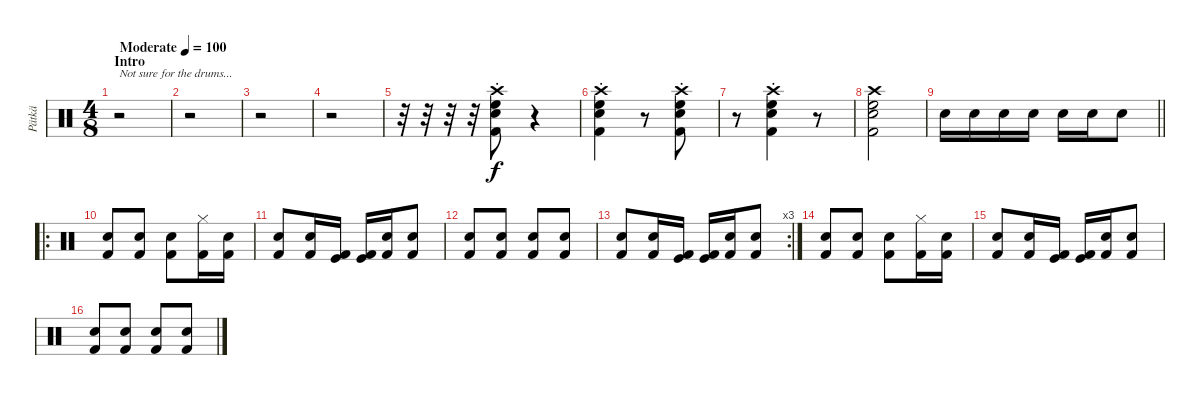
\track ("Pätkä" "Pätkä") {instrument percussion}
\staff {score}
\articulation defaults
\ts (4 8)
\section ("" "Intro")
\tempo (100 "Moderate")
\clef neutral
\ks c
r.2{txt "Not sure for the drums..." dy f} |
r.2 |
r.2 |
r.2 |
r.32 r.32 r.32 r.32 ("Crash high (hit)"{st} "High Floor Tom (hit)"{st} "Electric Snare (hit)"{st} "Kick (hit) 2"{st}).8 r.4 |
("Crash high (hit)"{st} "High Floor Tom (hit)"{st} "Electric Snare (hit)"{st} "Kick (hit) 2"{st}).4 r.8 ("Crash high (hit)"{st} "High Floor Tom (hit)"{st} "Electric Snare (hit)"{st} "Kick (hit) 2"{st}).8 |
r.8 ("Crash high (hit)"{st} "High Floor Tom (hit)"{st} "Snare (hit) 2"{st} "Kick (hit) 2"{st}).4 r.8 |
("Crash high (hit)" "High Floor Tom (hit)" "Snare (hit) 2" "Kick (hit) 2").2 |
\barLineRight lightlight "Electric Snare (hit)".16 "Snare (hit) 2".16 "Snare (hit) 2".16 "Electric Snare (hit)".16 "Snare (hit) 2".16 "Snare (hit) 2".16 "Electric Snare (hit)".8
|
\ro
("Electric Snare (hit)" "Kick (hit) 2").8 ("Snare (hit) 2" "Kick (hit) 2").8 ("Electric Snare (hit)" "Kick (hit) 2").8 ("Hi-Hat (closed)" "Kick (hit) 2").16 ("Snare (hit) 2" "Kick (hit) 2").16 |
("Snare (hit) 2" "Kick (hit) 2").8 ("Snare (hit) 2" "Kick (hit) 2").16 ("Kick (hit)" "Kick (hit) 2").16 ("Kick (hit)" "Kick (hit) 2").16 ("Snare (hit) 2" "Kick (hit) 2").16 ("Electric Snare (hit)" "Kick (hit) 2").8 |
("Electric Snare (hit)" "Kick (hit) 2").8 ("Snare (hit) 2" "Kick (hit) 2").8 ("Electric Snare (hit)" "Kick (hit) 2").8 ("Snare (hit) 2" "Kick (hit) 2").8 |
\rc 3
("Electric Snare (hit)" "Kick (hit) 2").8 ("Snare (hit) 2" "Kick (hit) 2").16 ("Kick (hit)" "Kick (hit) 2").16 ("Kick (hit)" "Kick (hit) 2").16 ("Snare (hit) 2" "Kick (hit) 2").16 ("Electric Snare (hit)" "Kick (hit) 2").8 |
("Electric Snare (hit)" "Kick (hit) 2").8 ("Snare (hit) 2" "Kick (hit) 2").8 ("Electric Snare (hit)" "Kick (hit) 2").8 ("Hi-Hat (closed)" "Kick (hit) 2").16 ("Snare (hit) 2" "Kick (hit) 2").16 |
("Snare (hit) 2" "Kick (hit) 2").8 ("Snare (hit) 2" "Kick (hit) 2").16 ("Kick (hit)" "Kick (hit) 2").16 ("Kick (hit)" "Kick (hit) 2").16 ("Snare (hit) 2" "Kick (hit) 2").16 ("Electric Snare (hit)" "Kick (hit) 2").8 |
("Electric Snare (hit)" "Kick (hit) 2").8 ("Snare (hit) 2" "Kick (hit) 2").8 ("Electric Snare (hit)" "Kick (hit) 2").8 ("Snare (hit) 2" "Kick (hit) 2").8
